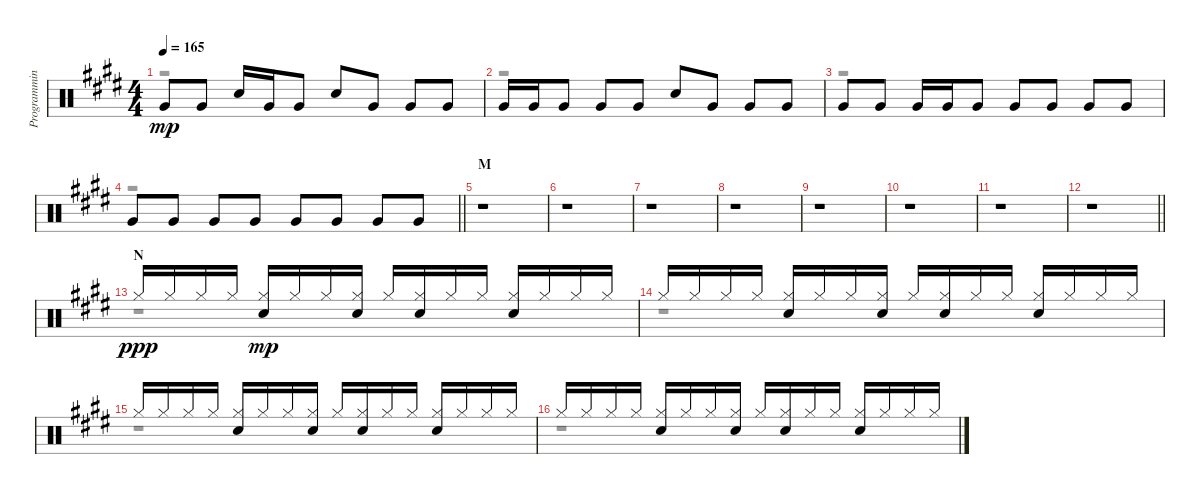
\track ("Programming I" "Programmin") {instrument percussion}
\staff {score}
\articulation defaults
\voice
\ts (4 4)
\tempo 165
\clef neutral
\ks e "Very Low Tom (hit)".8{dy mp} "Very Low Tom (hit)".8 "Electric Snare (hit)".16 "Very Low Tom (hit)".16 "Very Low Tom (hit)".8 "Electric Snare (hit)".8 "Very Low Tom (hit)".8 "Very Low Tom (hit)".8 "Very Low Tom (hit)".8
|
"Very Low Tom (hit)".16 "Very Low Tom (hit)".16 "Very Low Tom (hit)".8 "Very Low Tom (hit)".8 "Very Low Tom (hit)".8 "Electric Snare (hit)".8 "Very Low Tom (hit)".8 "Very Low Tom (hit)".8 "Very Low Tom (hit)".8 |
"Very Low Tom (hit)".8 "Very Low Tom (hit)".8 "Very Low Tom (hit)".16 "Very Low Tom (hit)".16 "Very Low Tom (hit)".8 "Very Low Tom (hit)".8 "Very Low Tom (hit)".8 "Very Low Tom (hit)".8 "Very Low Tom (hit)".8 |
\barLineRight lightlight "Very Low Tom (hit)".8 "Very Low Tom (hit)".8 "Very Low Tom (hit)".8 "Very Low Tom (hit)".8 "Very Low Tom (hit)".8 "Very Low Tom (hit)".8 "Very Low Tom (hit)".8 "Very Low Tom (hit)".8
|
\section ("" "M")
r.1 |
r.1 |
r.1 |
r.1 |
r.1 |
r.1 |
r.1 |
\barLineRight lightlight
r.1 |
\section ("" "N")
"Hi-Hat (closed)".16{dy ppp} "Hi-Hat (closed)".16 "Hi-Hat (closed)".16 "Hi-Hat (closed)".16 ("Hi-Hat (closed)" "Electric Snare (hit)").16{dy mp} "Hi-Hat (closed)".16 "Hi-Hat (closed)".16 ("Hi-Hat (closed)" "Electric Snare (hit)").16 "Hi-Hat (closed)".16 ("Hi-Hat (closed)" "Electric Snare (hit)").16 "Hi-Hat (closed)".16 "Hi-Hat (closed)".16 ("Hi-Hat (closed)" "Electric Snare (hit)").16 "Hi-Hat (closed)".16 "Hi-Hat (closed)".16 "Hi-Hat (closed)".16 |
"Hi-Hat (closed)".16 "Hi-Hat (closed)".16 "Hi-Hat (closed)".16 "Hi-Hat (closed)".16 ("Hi-Hat (closed)" "Electric Snare (hit)").16 "Hi-Hat (closed)".16 "Hi-Hat (closed)".16 ("Hi-Hat (closed)" "Electric Snare (hit)").16 "Hi-Hat (closed)".16 ("Hi-Hat (closed)" "Electric Snare (hit)").16 "Hi-Hat (closed)".16 "Hi-Hat (closed)".16 ("Hi-Hat (closed)" "Electric Snare (hit)").16 "Hi-Hat (closed)".16 "Hi-Hat (closed)".16 "Hi-Hat (closed)".16 |
"Hi-Hat (closed)".16 "Hi-Hat (closed)".16 "Hi-Hat (closed)".16 "Hi-Hat (closed)".16 ("Hi-Hat (closed)" "Electric Snare (hit)").16 "Hi-Hat (closed)".16 "Hi-Hat (closed)".16 ("Hi-Hat (closed)" "Electric Snare (hit)").16 "Hi-Hat (closed)".16 ("Hi-Hat (closed)" "Electric Snare (hit)").16 "Hi-Hat (closed)".16 "Hi-Hat (closed)".16 ("Hi-Hat (closed)" "Electric Snare (hit)").16 "Hi-Hat (closed)".16 "Hi-Hat (closed)".16 "Hi-Hat (closed)".16 |
"Hi-Hat (closed)".16 "Hi-Hat (closed)".16 "Hi-Hat (closed)".16 "Hi-Hat (closed)".16 ("Hi-Hat (closed)" "Electric Snare (hit)").16 "Hi-Hat (closed)".16 "Hi-Hat (closed)".16 ("Hi-Hat (closed)" "Electric Snare (hit)").16 "Hi-Hat (closed)".16 ("Hi-Hat (closed)" "Electric Snare (hit)").16 "Hi-Hat (closed)".16 "Hi-Hat (closed)".16 ("Hi-Hat (closed)" "Electric Snare (hit)").16 "Hi-Hat (closed)".16 "Hi-Hat (closed)".16 "Hi-Hat (closed)".16
\voice
\clef neutral
\ottava regular
\simile none
\ks e
r.1{dy mp} |
r.1 |
r.1 |
\barLineRight lightlight
r.1 |
r.1 |
r.1 |
r.1 |
r.1 |
r.1 |
r.1 |
r.1 |
\barLineRight lightlight
r.1 |
r.1 |
r.1 |
r.1 |
r.1
